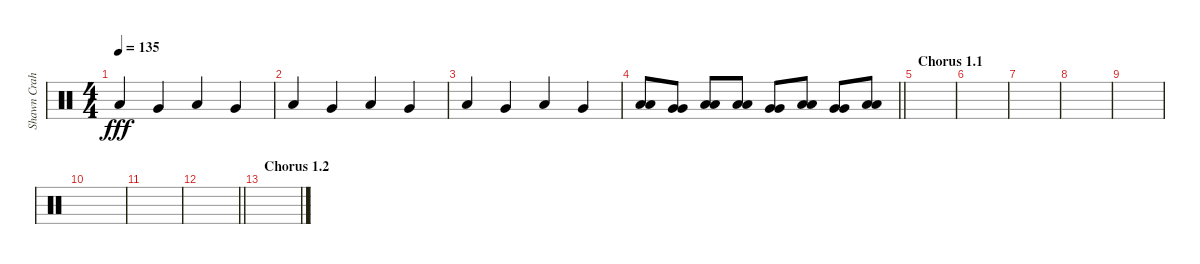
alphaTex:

\track ("Shawn Crahan" "Shawn Crah") {instrument percussion}
\staff {score}
\articulation defaults
\ts (4 4)
\tempo 135
\clef neutral
\ks c "Low Floor Tom (hit)".4{dy fff} "Very Low Tom (hit)".4 "Low Floor Tom (hit)".4 "Very Low Tom (hit)".4
|
"Low Floor Tom (hit)".4 "Very Low Tom (hit)".4 "Low Floor Tom (hit)".4 "Very Low Tom (hit)".4 |
"Low Floor Tom (hit)".4 "Very Low Tom (hit)".4 "Low Floor Tom (hit)".4 "Very Low Tom (hit)".4 |
\barLineRight lightlight
("Low Tom (hit)" "Low Tom (hit)").8 ("Very Low Tom (hit)" "Very Low Tom (hit)").8 ("Low Floor Tom (hit)" "Low Floor Tom (hit)").8 ("Low Floor Tom (hit)" "Low Floor Tom (hit)").8 ("Very Low Tom (hit)" "Very Low Tom (hit)").8 ("Low Floor Tom (hit)" "Low Floor Tom (hit)").8 ("Very Low Tom (hit)" "Very Low Tom (hit)").8 ("Low Floor Tom (hit)" "Low Floor Tom (hit)").8 |
\section ("" "Chorus 1.1")
|
|
|
|
|
|
|
\barLineRight lightlight
|
\section ("" "Chorus 1.2")
